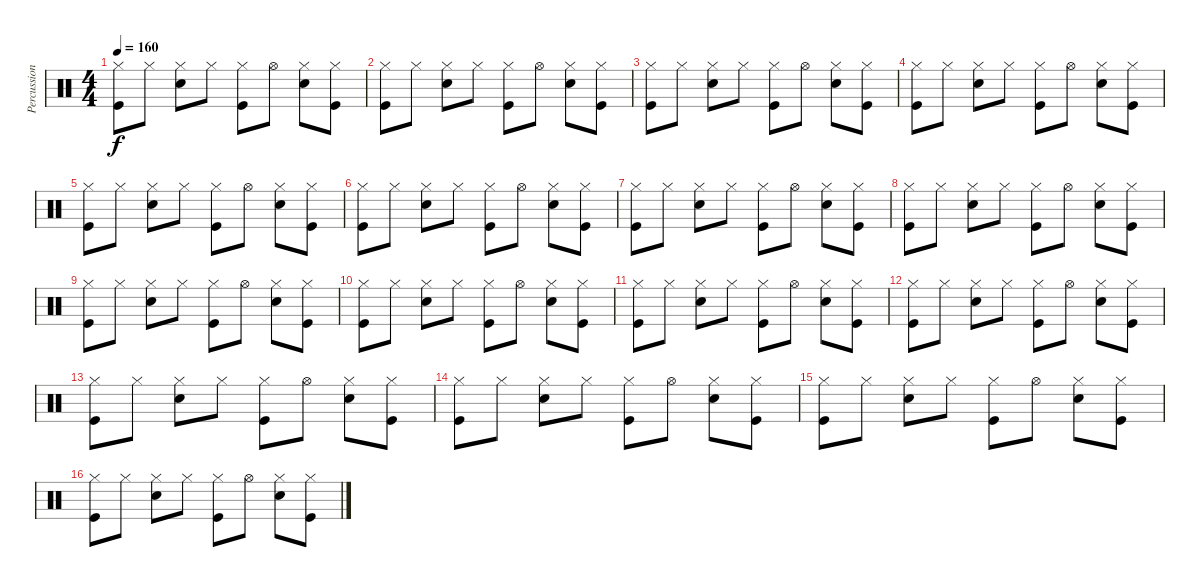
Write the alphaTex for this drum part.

\track ("Percussions" "Percussion") {instrument percussion}
\staff {score}
\articulation defaults
\ts (4 4)
\tempo 160
\clef neutral
\ks c
("Kick (hit)" "Hi-Hat (closed)").8{dy f} "Hi-Hat (closed)".8 ("Snare (hit) 2" "Hi-Hat (closed)").8 "Hi-Hat (closed)".8 ("Kick (hit)" "Hi-Hat (closed)").8 "Hi-Hat (open)".8 ("Snare (hit) 2" "Hi-Hat (closed)").8 ("Kick (hit)" "Hi-Hat (closed)").8 |
("Kick (hit)" "Hi-Hat (closed)").8 "Hi-Hat (closed)".8 ("Snare (hit) 2" "Hi-Hat (closed)").8 "Hi-Hat (closed)".8 ("Kick (hit)" "Hi-Hat (closed)").8 "Hi-Hat (open)".8 ("Snare (hit) 2" "Hi-Hat (closed)").8 ("Kick (hit)" "Hi-Hat (closed)").8 |
("Kick (hit)" "Hi-Hat (closed)").8 "Hi-Hat (closed)".8 ("Snare (hit) 2" "Hi-Hat (closed)").8 "Hi-Hat (closed)".8 ("Kick (hit)" "Hi-Hat (closed)").8 "Hi-Hat (open)".8 ("Snare (hit) 2" "Hi-Hat (closed)").8 ("Kick (hit)" "Hi-Hat (closed)").8 |
("Kick (hit)" "Hi-Hat (closed)").8 "Hi-Hat (closed)".8 ("Snare (hit) 2" "Hi-Hat (closed)").8 "Hi-Hat (closed)".8 ("Kick (hit)" "Hi-Hat (closed)").8 "Hi-Hat (open)".8 ("Snare (hit) 2" "Hi-Hat (closed)").8 ("Kick (hit)" "Hi-Hat (closed)").8 |
("Kick (hit)" "Hi-Hat (closed)").8 "Hi-Hat (closed)".8 ("Snare (hit) 2" "Hi-Hat (closed)").8 "Hi-Hat (closed)".8 ("Kick (hit)" "Hi-Hat (closed)").8 "Hi-Hat (open)".8 ("Snare (hit) 2" "Hi-Hat (closed)").8 ("Kick (hit)" "Hi-Hat (closed)").8 |
("Kick (hit)" "Hi-Hat (closed)").8 "Hi-Hat (closed)".8 ("Snare (hit) 2" "Hi-Hat (closed)").8 "Hi-Hat (closed)".8 ("Kick (hit)" "Hi-Hat (closed)").8 "Hi-Hat (open)".8 ("Snare (hit) 2" "Hi-Hat (closed)").8 ("Kick (hit)" "Hi-Hat (closed)").8 |
("Kick (hit)" "Hi-Hat (closed)").8 "Hi-Hat (closed)".8 ("Snare (hit) 2" "Hi-Hat (closed)").8 "Hi-Hat (closed)".8 ("Kick (hit)" "Hi-Hat (closed)").8 "Hi-Hat (open)".8 ("Snare (hit) 2" "Hi-Hat (closed)").8 ("Kick (hit)" "Hi-Hat (closed)").8 |
("Kick (hit)" "Hi-Hat (closed)").8 "Hi-Hat (closed)".8 ("Snare (hit) 2" "Hi-Hat (closed)").8 "Hi-Hat (closed)".8 ("Kick (hit)" "Hi-Hat (closed)").8 "Hi-Hat (open)".8 ("Snare (hit) 2" "Hi-Hat (closed)").8 ("Kick (hit)" "Hi-Hat (closed)").8 |
("Kick (hit)" "Hi-Hat (closed)").8 "Hi-Hat (closed)".8 ("Snare (hit) 2" "Hi-Hat (closed)").8 "Hi-Hat (closed)".8 ("Kick (hit)" "Hi-Hat (closed)").8 "Hi-Hat (open)".8 ("Snare (hit) 2" "Hi-Hat (closed)").8 ("Kick (hit)" "Hi-Hat (closed)").8 |
("Kick (hit)" "Hi-Hat (closed)").8 "Hi-Hat (closed)".8 ("Snare (hit) 2" "Hi-Hat (closed)").8 "Hi-Hat (closed)".8 ("Kick (hit)" "Hi-Hat (closed)").8 "Hi-Hat (open)".8 ("Snare (hit) 2" "Hi-Hat (closed)").8 ("Kick (hit)" "Hi-Hat (closed)").8 |
("Kick (hit)" "Hi-Hat (closed)").8 "Hi-Hat (closed)".8 ("Snare (hit) 2" "Hi-Hat (closed)").8 "Hi-Hat (closed)".8 ("Kick (hit)" "Hi-Hat (closed)").8 "Hi-Hat (open)".8 ("Snare (hit) 2" "Hi-Hat (closed)").8 ("Kick (hit)" "Hi-Hat (closed)").8 |
("Kick (hit)" "Hi-Hat (closed)").8 "Hi-Hat (closed)".8 ("Snare (hit) 2" "Hi-Hat (closed)").8 "Hi-Hat (closed)".8 ("Kick (hit)" "Hi-Hat (closed)").8 "Hi-Hat (open)".8 ("Snare (hit) 2" "Hi-Hat (closed)").8 ("Kick (hit)" "Hi-Hat (closed)").8 |
("Kick (hit)" "Hi-Hat (closed)").8 "Hi-Hat (closed)".8 ("Snare (hit) 2" "Hi-Hat (closed)").8 "Hi-Hat (closed)".8 ("Kick (hit)" "Hi-Hat (closed)").8 "Hi-Hat (open)".8 ("Snare (hit) 2" "Hi-Hat (closed)").8 ("Kick (hit)" "Hi-Hat (closed)").8 |
("Kick (hit)" "Hi-Hat (closed)").8 "Hi-Hat (closed)".8 ("Snare (hit) 2" "Hi-Hat (closed)").8 "Hi-Hat (closed)".8 ("Kick (hit)" "Hi-Hat (closed)").8 "Hi-Hat (open)".8 ("Snare (hit) 2" "Hi-Hat (closed)").8 ("Kick (hit)" "Hi-Hat (closed)").8 |
("Kick (hit)" "Hi-Hat (closed)").8 "Hi-Hat (closed)".8 ("Snare (hit) 2" "Hi-Hat (closed)").8 "Hi-Hat (closed)".8 ("Kick (hit)" "Hi-Hat (closed)").8 "Hi-Hat (open)".8 ("Snare (hit) 2" "Hi-Hat (closed)").8 ("Kick (hit)" "Hi-Hat (closed)").8 |
("Kick (hit)" "Hi-Hat (closed)").8 "Hi-Hat (closed)".8 ("Snare (hit) 2" "Hi-Hat (closed)").8 "Hi-Hat (closed)".8 ("Kick (hit)" "Hi-Hat (closed)").8 "Hi-Hat (open)".8 ("Snare (hit) 2" "Hi-Hat (closed)").8 ("Kick (hit)" "Hi-Hat (closed)").8
